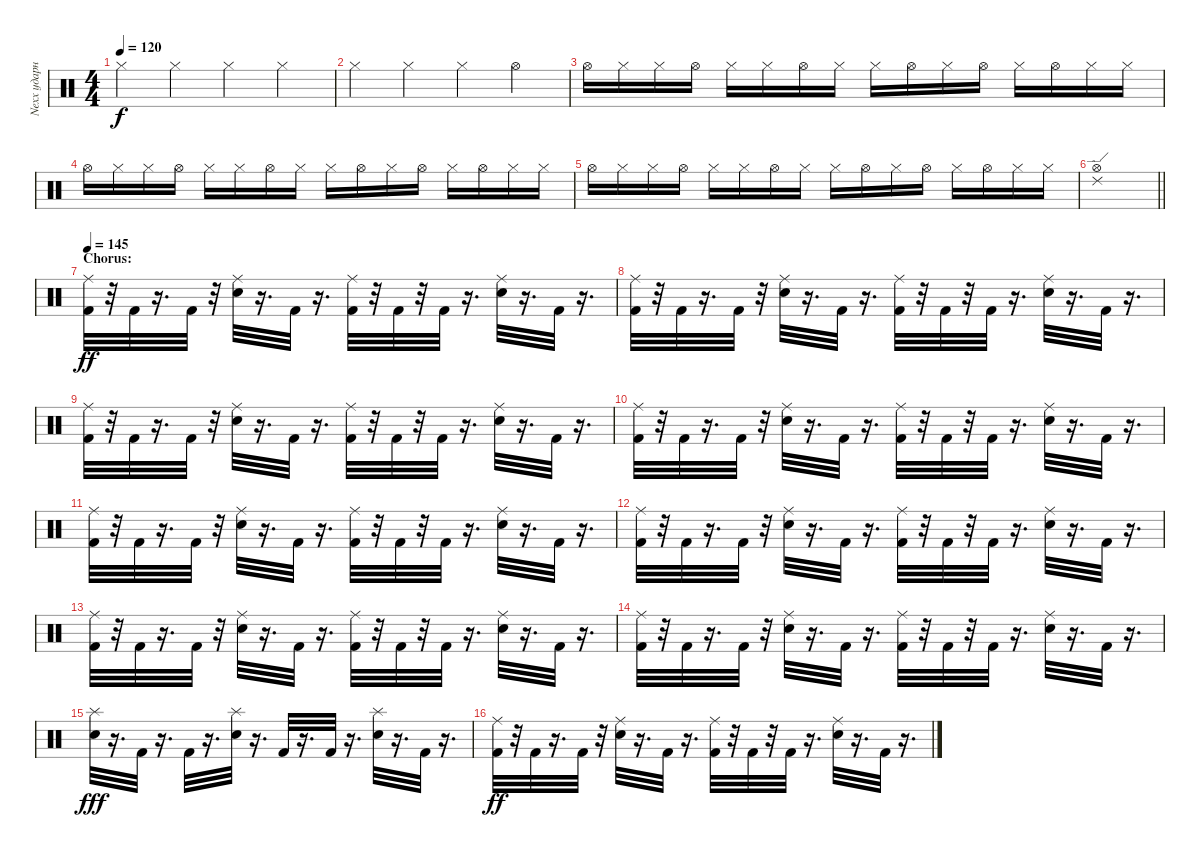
\track ("Nexx ударные" "Nexx ударн") {instrument percussion}
\staff {score}
\articulation defaults
\ts (4 4)
\tempo 120
\clef neutral
\ks c "Hi-Hat (closed)".4{dy f} "Hi-Hat (closed)".4 "Hi-Hat (closed)".4 "Hi-Hat (closed)".4
|
"Hi-Hat (closed)".4 "Hi-Hat (closed)".4 "Hi-Hat (closed)".4 "Hi-Hat (open)".4 |
"Hi-Hat (open)".16 "Hi-Hat (closed)".16 "Hi-Hat (closed)".16 "Hi-Hat (open)".16 "Hi-Hat (closed)".16 "Hi-Hat (closed)".16 "Hi-Hat (open)".16 "Hi-Hat (closed)".16 "Hi-Hat (closed)".16 "Hi-Hat (open)".16 "Hi-Hat (closed)".16 "Hi-Hat (open)".16 "Hi-Hat (closed)".16 "Hi-Hat (open)".16 "Hi-Hat (closed)".16 "Hi-Hat (closed)".16 |
"Hi-Hat (open)".16 "Hi-Hat (closed)".16 "Hi-Hat (closed)".16 "Hi-Hat (open)".16 "Hi-Hat (closed)".16 "Hi-Hat (closed)".16 "Hi-Hat (open)".16 "Hi-Hat (closed)".16 "Hi-Hat (closed)".16 "Hi-Hat (open)".16 "Hi-Hat (closed)".16 "Hi-Hat (open)".16 "Hi-Hat (closed)".16 "Hi-Hat (open)".16 "Hi-Hat (closed)".16 "Hi-Hat (closed)".16 |
"Hi-Hat (open)".16 "Hi-Hat (closed)".16 "Hi-Hat (closed)".16 "Hi-Hat (open)".16 "Hi-Hat (closed)".16 "Hi-Hat (closed)".16 "Hi-Hat (open)".16 "Hi-Hat (closed)".16 "Hi-Hat (closed)".16 "Hi-Hat (open)".16 "Hi-Hat (closed)".16 "Hi-Hat (open)".16 "Hi-Hat (closed)".16 "Hi-Hat (open)".16 "Hi-Hat (closed)".16 "Hi-Hat (closed)".16 |
\barLineRight lightlight
("Ride (edge) 2" "Hi-Hat (open)").1 |
\section ("" "Chorus:")
\tempo 145
("Ride (middle)" "Kick (hit) 2").32{dy ff} r.32 "Kick (hit) 2".32 r.16{d} "Kick (hit) 2".32 r.32 ("Ride (middle)" "Electric Snare (hit)").32 r.16{d} "Kick (hit) 2".32 r.16{d} ("Ride (middle)" "Kick (hit) 2").32 r.32 "Kick (hit) 2".32 r.32 "Kick (hit) 2".32 r.16{d} ("Ride (middle)" "Electric Snare (hit)").32 r.16{d} "Kick (hit) 2".32 r.16{d} |
("Ride (middle)" "Kick (hit) 2").32 r.32 "Kick (hit) 2".32 r.16{d} "Kick (hit) 2".32 r.32 ("Ride (middle)" "Electric Snare (hit)").32 r.16{d} "Kick (hit) 2".32 r.16{d} ("Ride (middle)" "Kick (hit) 2").32 r.32 "Kick (hit) 2".32 r.32 "Kick (hit) 2".32 r.16{d} ("Ride (middle)" "Electric Snare (hit)").32 r.16{d} "Kick (hit) 2".32 r.16{d} |
("Ride (middle)" "Kick (hit) 2").32 r.32 "Kick (hit) 2".32 r.16{d} "Kick (hit) 2".32 r.32 ("Ride (middle)" "Electric Snare (hit)").32 r.16{d} "Kick (hit) 2".32 r.16{d} ("Ride (middle)" "Kick (hit) 2").32 r.32 "Kick (hit) 2".32 r.32 "Kick (hit) 2".32 r.16{d} ("Ride (middle)" "Electric Snare (hit)").32 r.16{d} "Kick (hit) 2".32 r.16{d} |
("Ride (middle)" "Kick (hit) 2").32 r.32 "Kick (hit) 2".32 r.16{d} "Kick (hit) 2".32 r.32 ("Ride (middle)" "Electric Snare (hit)").32 r.16{d} "Kick (hit) 2".32 r.16{d} ("Ride (middle)" "Kick (hit) 2").32 r.32 "Kick (hit) 2".32 r.32 "Kick (hit) 2".32 r.16{d} ("Ride (middle)" "Electric Snare (hit)").32 r.16{d} "Kick (hit) 2".32 r.16{d} |
("Ride (middle)" "Kick (hit) 2").32 r.32 "Kick (hit) 2".32 r.16{d} "Kick (hit) 2".32 r.32 ("Ride (middle)" "Electric Snare (hit)").32 r.16{d} "Kick (hit) 2".32 r.16{d} ("Ride (middle)" "Kick (hit) 2").32 r.32 "Kick (hit) 2".32 r.32 "Kick (hit) 2".32 r.16{d} ("Ride (middle)" "Electric Snare (hit)").32 r.16{d} "Kick (hit) 2".32 r.16{d} |
("Ride (middle)" "Kick (hit) 2").32 r.32 "Kick (hit) 2".32 r.16{d} "Kick (hit) 2".32 r.32 ("Ride (middle)" "Electric Snare (hit)").32 r.16{d} "Kick (hit) 2".32 r.16{d} ("Ride (middle)" "Kick (hit) 2").32 r.32 "Kick (hit) 2".32 r.32 "Kick (hit) 2".32 r.16{d} ("Ride (middle)" "Electric Snare (hit)").32 r.16{d} "Kick (hit) 2".32 r.16{d} |
("Ride (middle)" "Kick (hit) 2").32 r.32 "Kick (hit) 2".32 r.16{d} "Kick (hit) 2".32 r.32 ("Ride (middle)" "Electric Snare (hit)").32 r.16{d} "Kick (hit) 2".32 r.16{d} ("Ride (middle)" "Kick (hit) 2").32 r.32 "Kick (hit) 2".32 r.32 "Kick (hit) 2".32 r.16{d} ("Ride (middle)" "Electric Snare (hit)").32 r.16{d} "Kick (hit) 2".32 r.16{d} |
("Ride (middle)" "Kick (hit) 2").32 r.32 "Kick (hit) 2".32 r.16{d} "Kick (hit) 2".32 r.32 ("Ride (middle)" "Electric Snare (hit)").32 r.16{d} "Kick (hit) 2".32 r.16{d} ("Ride (middle)" "Kick (hit) 2").32 r.32 "Kick (hit) 2".32 r.32 "Kick (hit) 2".32 r.16{d} ("Ride (middle)" "Electric Snare (hit)").32 r.16{d} "Kick (hit) 2".32 r.16{d} |
("Snare (hit) 2" "Splash (hit)").32{dy fff} r.16{d} "Kick (hit) 2".32 r.16{d} "Kick (hit) 2".32 r.16{d} ("Splash (hit)" "Snare (hit) 2").32 r.16{d} "Kick (hit) 2".32 r.16{d} "Kick (hit) 2".32 r.16{d} ("Splash (hit)" "Snare (hit) 2").32 r.16{d} "Kick (hit) 2".32 r.16{d} |
("Ride (middle)" "Kick (hit) 2").32{dy ff} r.32 "Kick (hit) 2".32 r.16{d} "Kick (hit) 2".32 r.32 ("Ride (middle)" "Electric Snare (hit)").32 r.16{d} "Kick (hit) 2".32 r.16{d} ("Ride (middle)" "Kick (hit) 2").32 r.32 "Kick (hit) 2".32 r.32 "Kick (hit) 2".32 r.16{d} ("Ride (middle)" "Electric Snare (hit)").32 r.16{d} "Kick (hit) 2".32 r.16{d}
